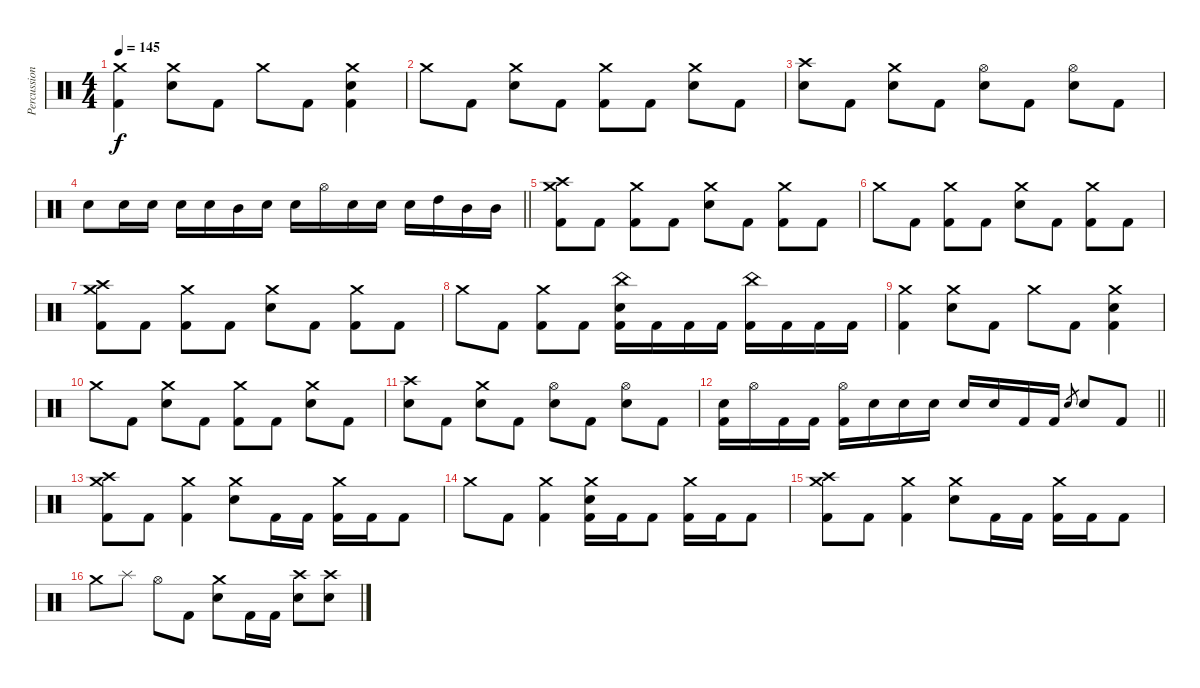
\track ("Percussion" "Percussion") {instrument percussion}
\staff {score}
\articulation defaults
\ts (4 4)
\tempo 145
\clef neutral
\ks c
("Crash medium (hit)" "Kick (hit) 2").4{dy f} ("Crash medium (hit)" "Electric Snare (hit)").8 "Kick (hit) 2".8 "Crash medium (hit)".8 "Kick (hit) 2".8 ("Crash medium (hit)" "Electric Snare (hit)" "Kick (hit) 2").4 |
"Crash medium (hit)".8 "Kick (hit) 2".8 ("Crash medium (hit)" "Electric Snare (hit)").8 "Kick (hit) 2".8 ("Crash medium (hit)" "Kick (hit) 2").8 "Kick (hit) 2".8 ("Crash medium (hit)" "Electric Snare (hit)").8 "Kick (hit) 2".8 |
("Crash high (hit)" "Electric Snare (hit)").8 "Kick (hit) 2".8 ("Crash medium (hit)" "Electric Snare (hit)").8 "Kick (hit) 2".8 ("Hi-Hat (open)" "Electric Snare (hit)").8 "Kick (hit) 2".8 ("Hi-Hat (open)" "Electric Snare (hit)").8 "Kick (hit) 2".8 |
\barLineRight lightlight "Electric Snare (hit)".8 "Electric Snare (hit)".16 "Electric Snare (hit)".16 "Electric Snare (hit)".16 "Electric Snare (hit)".16 "Mid Tom (hit)".16 "Electric Snare (hit)".16 "Electric Snare (hit)".16 "Hi-Hat (open)".16 "Electric Snare (hit)".16 "Electric Snare (hit)".16 "Electric Snare (hit)".16 "High Tom (hit)".16 "Mid Tom (hit)".16 "Mid Tom (hit)".16
|
("Crash medium (hit)" "Crash high (hit)" "Kick (hit) 2").8 "Kick (hit) 2".8 ("Crash medium (hit)" "Kick (hit) 2").8 "Kick (hit) 2".8 ("Crash medium (hit)" "Electric Snare (hit)").8 "Kick (hit) 2".8 ("Crash medium (hit)" "Kick (hit) 2").8 "Kick (hit) 2".8 |
"Crash medium (hit)".8 "Kick (hit) 2".8 ("Crash medium (hit)" "Kick (hit) 2").8 "Kick (hit) 2".8 ("Crash medium (hit)" "Electric Snare (hit)").8 "Kick (hit) 2".8 ("Crash medium (hit)" "Kick (hit) 2").8 "Kick (hit) 2".8 |
("Crash medium (hit)" "Crash high (hit)" "Kick (hit) 2").8 "Kick (hit) 2".8 ("Crash medium (hit)" "Kick (hit) 2").8 "Kick (hit) 2".8 ("Crash medium (hit)" "Electric Snare (hit)").8 "Kick (hit) 2".8 ("Crash medium (hit)" "Kick (hit) 2").8 "Kick (hit) 2".8 |
"Crash medium (hit)".8 "Kick (hit) 2".8 ("Crash medium (hit)" "Kick (hit) 2").8 "Kick (hit) 2".8 ("China (hit)" "Electric Snare (hit)" "Kick (hit) 2").16 "Kick (hit) 2".16 "Kick (hit) 2".16 "Kick (hit) 2".16 ("China (hit)" "Kick (hit) 2").16 "Kick (hit) 2".16 "Kick (hit) 2".16 "Kick (hit) 2".16 |
("Crash medium (hit)" "Kick (hit) 2").4 ("Crash medium (hit)" "Electric Snare (hit)").8 "Kick (hit) 2".8 "Crash medium (hit)".8 "Kick (hit) 2".8 ("Crash medium (hit)" "Electric Snare (hit)" "Kick (hit) 2").4 |
"Crash medium (hit)".8 "Kick (hit) 2".8 ("Crash medium (hit)" "Electric Snare (hit)").8 "Kick (hit) 2".8 ("Crash medium (hit)" "Kick (hit) 2").8 "Kick (hit) 2".8 ("Crash medium (hit)" "Electric Snare (hit)").8 "Kick (hit) 2".8 |
("Crash high (hit)" "Electric Snare (hit)").8 "Kick (hit) 2".8 ("Crash medium (hit)" "Electric Snare (hit)").8 "Kick (hit) 2".8 ("Hi-Hat (open)" "Electric Snare (hit)").8 "Kick (hit) 2".8 ("Hi-Hat (open)" "Electric Snare (hit)").8 "Kick (hit) 2".8 |
\barLineRight lightlight
("Electric Snare (hit)" "Kick (hit) 2").16 "Hi-Hat (open)".16 "Kick (hit) 2".16 "Kick (hit) 2".16 ("Hi-Hat (open)" "Kick (hit) 2").16 "Electric Snare (hit)".16 "Electric Snare (hit)".16 "Electric Snare (hit)".16 "Electric Snare (hit)".16 "Electric Snare (hit)".16 "Kick (hit) 2".16 "Kick (hit) 2".16 "Snare (hit) 2".8{gr} "Electric Snare (hit)".8 "Kick (hit) 2".8 |
\section ("" "")
("Crash medium (hit)" "Crash high (hit)" "Kick (hit) 2").8 "Kick (hit) 2".8 ("Crash medium (hit)" "Kick (hit) 2").4 ("Crash medium (hit)" "Electric Snare (hit)").8 "Kick (hit) 2".16 "Kick (hit) 2".16 ("Crash medium (hit)" "Kick (hit) 2").16 "Kick (hit) 2".16 "Kick (hit) 2".8 |
"Crash medium (hit)".8 "Kick (hit) 2".8 ("Crash medium (hit)" "Kick (hit) 2").4 ("Crash medium (hit)" "Electric Snare (hit)" "Kick (hit) 2").16 "Kick (hit) 2".16 "Kick (hit) 2".8 ("Crash medium (hit)" "Kick (hit) 2").16 "Kick (hit) 2".16 "Kick (hit) 2".8 |
("Crash medium (hit)" "Crash high (hit)" "Kick (hit) 2").8 "Kick (hit) 2".8 ("Crash medium (hit)" "Kick (hit) 2").4 ("Crash medium (hit)" "Electric Snare (hit)").8 "Kick (hit) 2".16 "Kick (hit) 2".16 ("Crash medium (hit)" "Kick (hit) 2").16 "Kick (hit) 2".16 "Kick (hit) 2".8 |
"Crash medium (hit)".8 "Splash (hit)".8 "Hi-Hat (open)".8 "Kick (hit) 2".8 ("Crash medium (hit)" "Electric Snare (hit)").8 "Kick (hit) 2".16 "Kick (hit) 2".16 ("Crash high (hit)" "Electric Snare (hit)").8 ("Crash high (hit)" "Electric Snare (hit)").8
